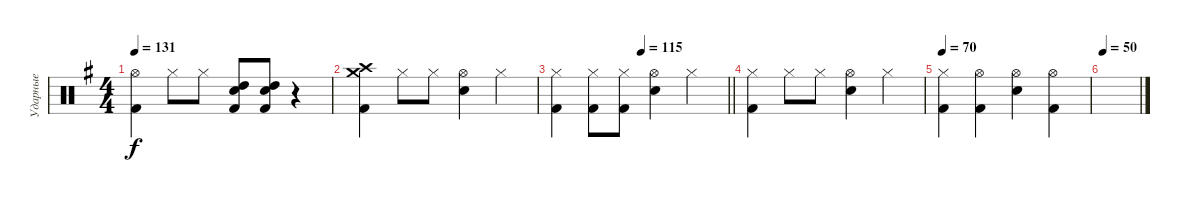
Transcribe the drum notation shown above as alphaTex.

\track ("Ударные" "Ударные") {instrument percussion}
\staff {score}
\articulation defaults
\ts (4 4)
\tempo 131
\clef neutral
\ks eminor
("Hi-Hat (open)" "Kick (hit) 2").4{dy f} "Hi-Hat (closed)".8 "Hi-Hat (closed)".8 ("High Tom (hit)" "Kick (hit) 2" "Electric Snare (hit)").8 ("High Tom (hit)" "Kick (hit) 2" "Electric Snare (hit)").8 r.4 |
("Crash medium (hit)" "Crash high (hit)" "Kick (hit) 2").4 "Hi-Hat (closed)".8 "Hi-Hat (closed)".8 ("Hi-Hat (open)" "Snare (hit) 2").4 "Hi-Hat (closed)".4 |
\tempo (115 0.5)
\barLineRight lightlight
("Hi-Hat (closed)" "Kick (hit) 2").4 ("Hi-Hat (closed)" "Kick (hit) 2").8 ("Hi-Hat (closed)" "Kick (hit) 2").8 ("Hi-Hat (open)" "Snare (hit) 2").4 "Hi-Hat (closed)".4 |
("Hi-Hat (closed)" "Kick (hit) 2").4 "Hi-Hat (closed)".8 "Hi-Hat (closed)".8 ("Hi-Hat (open)" "Snare (hit) 2").4 "Hi-Hat (closed)".4 |
\tempo 70
("Hi-Hat (closed)" "Kick (hit) 2").4 ("Hi-Hat (open)" "Kick (hit) 2").4 ("Hi-Hat (open)" "Snare (hit) 2").4 ("Hi-Hat (open)" "Kick (hit) 2").4 |
\tempo 50
